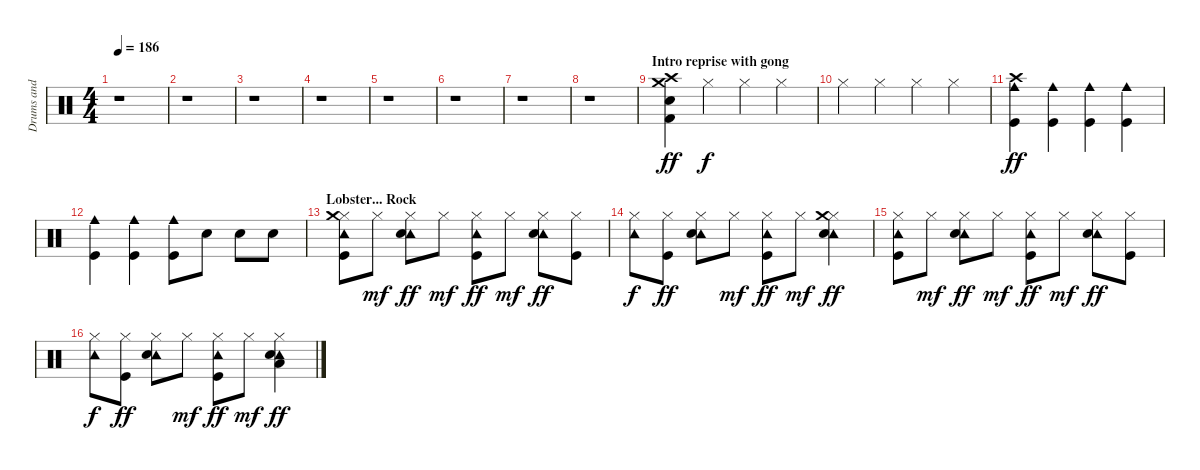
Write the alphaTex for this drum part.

\track ("Drums and Percs" "Drums and ") {instrument percussion}
\staff {score}
\articulation defaults
\ts (4 4)
\tempo 186
\clef neutral
\ks c
r.1{dy f} |
r.1 |
r.1 |
r.1 |
r.1 |
r.1 |
r.1 |
r.1 |
\section ("" "Intro reprise with gong")
("Crash high (hit)" "Crash medium (hit)" "Electric Snare (hit)" "Kick (hit) 2").4{dy ff} "Hi-Hat (closed)".4{dy f} "Hi-Hat (closed)".4 "Hi-Hat (closed)".4 |
"Hi-Hat (closed)".4 "Hi-Hat (closed)".4 "Hi-Hat (closed)".4 "Hi-Hat (closed)".4 |
("Cowbell medium (hit)" "Crash high (hit)" "Kick (hit)").4{dy ff} ("Cowbell medium (hit)" "Kick (hit)").4 ("Cowbell medium (hit)" "Kick (hit)").4 ("Cowbell medium (hit)" "Kick (hit)").4 |
("Cowbell medium (hit)" "Kick (hit)").4 ("Cowbell medium (hit)" "Kick (hit)").4 ("Cowbell medium (hit)" "Kick (hit)").8 "Electric Snare (hit)".8 "Electric Snare (hit)".8 "Electric Snare (hit)".8 |
\section ("" "Lobster... Rock")
("Hi-Hat (closed)" "Tambourine (hit)" "Crash medium (hit)" "Kick (hit)").8 "Hi-Hat (closed)".8{dy mf} ("Hi-Hat (closed)" "Tambourine (hit)" "Electric Snare (hit)").8{dy ff} "Hi-Hat (closed)".8{dy mf} ("Hi-Hat (closed)" "Tambourine (hit)" "Kick (hit)").8{dy ff} "Hi-Hat (closed)".8{dy mf} ("Hi-Hat (closed)" "Tambourine (hit)" "Electric Snare (hit)").8{dy ff} ("Hi-Hat (closed)" "Kick (hit)").8 |
("Hi-Hat (closed)" "Tambourine (hit)").8{dy f} ("Hi-Hat (closed)" "Kick (hit)").8{dy ff} ("Hi-Hat (closed)" "Tambourine (hit)" "Electric Snare (hit)").8 "Hi-Hat (closed)".8{dy mf} ("Hi-Hat (closed)" "Tambourine (hit)" "Kick (hit)").8{dy ff} "Hi-Hat (closed)".8{dy mf} ("Hi-Hat (closed)" "Tambourine (hit)" "Crash medium (hit)" "Electric Snare (hit)").4{dy ff} |
("Hi-Hat (closed)" "Tambourine (hit)" "Kick (hit)").8 "Hi-Hat (closed)".8{dy mf} ("Hi-Hat (closed)" "Tambourine (hit)" "Electric Snare (hit)").8{dy ff} "Hi-Hat (closed)".8{dy mf} ("Hi-Hat (closed)" "Tambourine (hit)" "Kick (hit)").8{dy ff} "Hi-Hat (closed)".8{dy mf} ("Hi-Hat (closed)" "Tambourine (hit)" "Electric Snare (hit)").8{dy ff} ("Hi-Hat (closed)" "Kick (hit)").8 |
("Hi-Hat (closed)" "Tambourine (hit)").8{dy f} ("Hi-Hat (closed)" "Kick (hit)").8{dy ff} ("Hi-Hat (closed)" "Tambourine (hit)" "Electric Snare (hit)").8 "Hi-Hat (closed)".8{dy mf} ("Hi-Hat (closed)" "Tambourine (hit)" "Kick (hit)").8{dy ff} "Hi-Hat (closed)".8{dy mf} ("Hi-Hat (closed)" "Tambourine (hit)" "Low Tom (hit)" "Electric Snare (hit)").4{dy ff}
